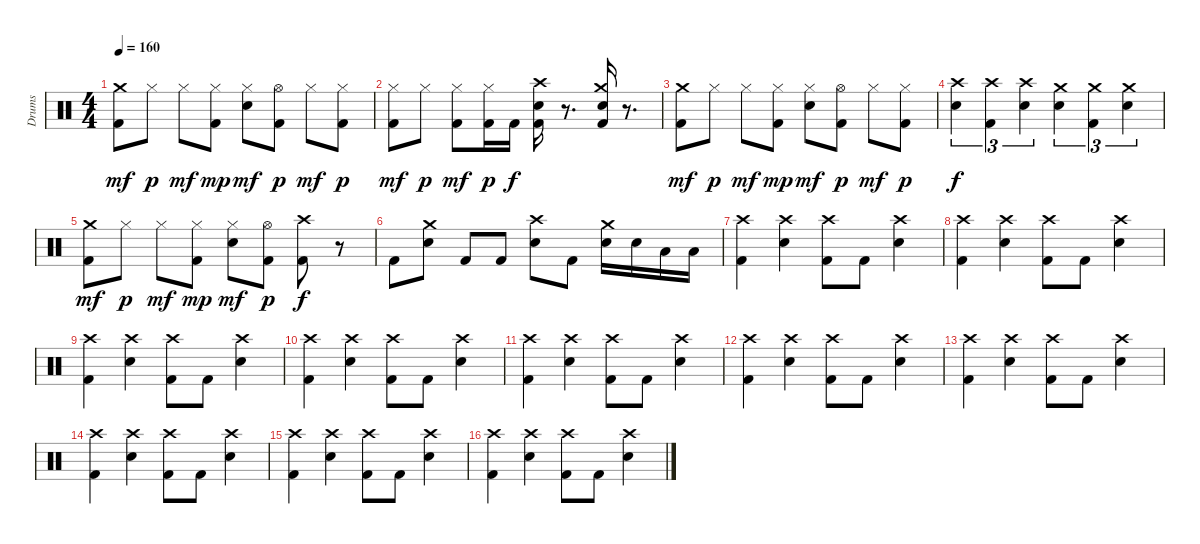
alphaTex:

\track ("Drums" "Drums") {instrument percussion}
\staff {score}
\articulation defaults
\ts (4 4)
\tempo 160
\clef neutral
\ks c
("Kick (hit) 2" "Crash medium (hit)").8{dy mf} "Hi-Hat (closed)".8{dy p} "Hi-Hat (closed)".8{dy mf} ("Kick (hit) 2" "Hi-Hat (closed)").8{dy mp} ("Electric Snare (hit)" "Hi-Hat (closed)").8{dy mf} ("Kick (hit) 2" "Hi-Hat (open)").8{dy p} "Hi-Hat (closed)".8{dy mf} ("Kick (hit) 2" "Hi-Hat (closed)").8{dy p} |
("Kick (hit) 2" "Hi-Hat (closed)").8{dy mf} "Hi-Hat (closed)".8{dy p} ("Kick (hit) 2" "Hi-Hat (closed)").8{dy mf} ("Kick (hit) 2" "Hi-Hat (closed)").16{dy p} "Kick (hit) 2".16{dy f} ("Electric Snare (hit)" "Kick (hit) 2" "Crash high (hit)").16 r.8{d} ("Electric Snare (hit)" "Kick (hit) 2" "Crash medium (hit)").16 r.8{d} |
("Kick (hit) 2" "Crash medium (hit)").8{dy mf} "Hi-Hat (closed)".8{dy p} "Hi-Hat (closed)".8{dy mf} ("Kick (hit) 2" "Hi-Hat (closed)").8{dy mp} ("Electric Snare (hit)" "Hi-Hat (closed)").8{dy mf} ("Kick (hit) 2" "Hi-Hat (open)").8{dy p} "Hi-Hat (closed)".8{dy mf} ("Kick (hit) 2" "Hi-Hat (closed)").8{dy p} |
("Electric Snare (hit)" "Crash high (hit)").4{tu (3 2) dy f} ("Kick (hit) 2" "Crash high (hit)").4{tu (3 2)} ("Electric Snare (hit)" "Crash high (hit)").4{tu (3 2)} ("Electric Snare (hit)" "Crash medium (hit)").4{tu (3 2)} ("Kick (hit) 2" "Crash medium (hit)").4{tu (3 2)} ("Electric Snare (hit)" "Crash medium (hit)").4{tu (3 2)} |
("Kick (hit) 2" "Crash medium (hit)").8{dy mf} "Hi-Hat (closed)".8{dy p} "Hi-Hat (closed)".8{dy mf} ("Kick (hit) 2" "Hi-Hat (closed)").8{dy mp} ("Electric Snare (hit)" "Hi-Hat (closed)").8{dy mf} ("Kick (hit) 2" "Hi-Hat (open)").8{dy p} ("Kick (hit) 2" "Crash high (hit)").8{dy f} r.8 |
"Kick (hit) 2".8 ("Electric Snare (hit)" "Crash medium (hit)").8 "Kick (hit) 2".8 "Kick (hit) 2".8 ("Electric Snare (hit)" "Crash high (hit)").8 "Kick (hit) 2".8 ("Electric Snare (hit)" "Crash medium (hit)").16 "Electric Snare (hit)".16 "Low Tom (hit)".16 "Low Tom (hit)".16 |
("Kick (hit) 2" "Crash high (hit)").4 ("Electric Snare (hit)" "Crash high (hit)").4 ("Kick (hit) 2" "Crash high (hit)").8 "Kick (hit) 2".8 ("Electric Snare (hit)" "Crash high (hit)").4 |
("Kick (hit) 2" "Crash high (hit)").4 ("Electric Snare (hit)" "Crash high (hit)").4 ("Kick (hit) 2" "Crash high (hit)").8 "Kick (hit) 2".8 ("Electric Snare (hit)" "Crash high (hit)").4 |
("Kick (hit) 2" "Crash high (hit)").4 ("Electric Snare (hit)" "Crash high (hit)").4 ("Kick (hit) 2" "Crash high (hit)").8 "Kick (hit) 2".8 ("Electric Snare (hit)" "Crash high (hit)").4 |
("Kick (hit) 2" "Crash high (hit)").4 ("Electric Snare (hit)" "Crash high (hit)").4 ("Kick (hit) 2" "Crash high (hit)").8 "Kick (hit) 2".8 ("Electric Snare (hit)" "Crash high (hit)").4 |
("Kick (hit) 2" "Crash high (hit)").4 ("Electric Snare (hit)" "Crash high (hit)").4 ("Kick (hit) 2" "Crash high (hit)").8 "Kick (hit) 2".8 ("Electric Snare (hit)" "Crash high (hit)").4 |
("Kick (hit) 2" "Crash high (hit)").4 ("Electric Snare (hit)" "Crash high (hit)").4 ("Kick (hit) 2" "Crash high (hit)").8 "Kick (hit) 2".8 ("Electric Snare (hit)" "Crash high (hit)").4 |
("Kick (hit) 2" "Crash high (hit)").4 ("Electric Snare (hit)" "Crash high (hit)").4 ("Kick (hit) 2" "Crash high (hit)").8 "Kick (hit) 2".8 ("Electric Snare (hit)" "Crash high (hit)").4 |
("Kick (hit) 2" "Crash high (hit)").4 ("Electric Snare (hit)" "Crash high (hit)").4 ("Kick (hit) 2" "Crash high (hit)").8 "Kick (hit) 2".8 ("Electric Snare (hit)" "Crash high (hit)").4 |
("Kick (hit) 2" "Crash high (hit)").4 ("Electric Snare (hit)" "Crash high (hit)").4 ("Kick (hit) 2" "Crash high (hit)").8 "Kick (hit) 2".8 ("Electric Snare (hit)" "Crash high (hit)").4 |
("Kick (hit) 2" "Crash high (hit)").4 ("Electric Snare (hit)" "Crash high (hit)").4 ("Kick (hit) 2" "Crash high (hit)").8 "Kick (hit) 2".8 ("Electric Snare (hit)" "Crash high (hit)").4
